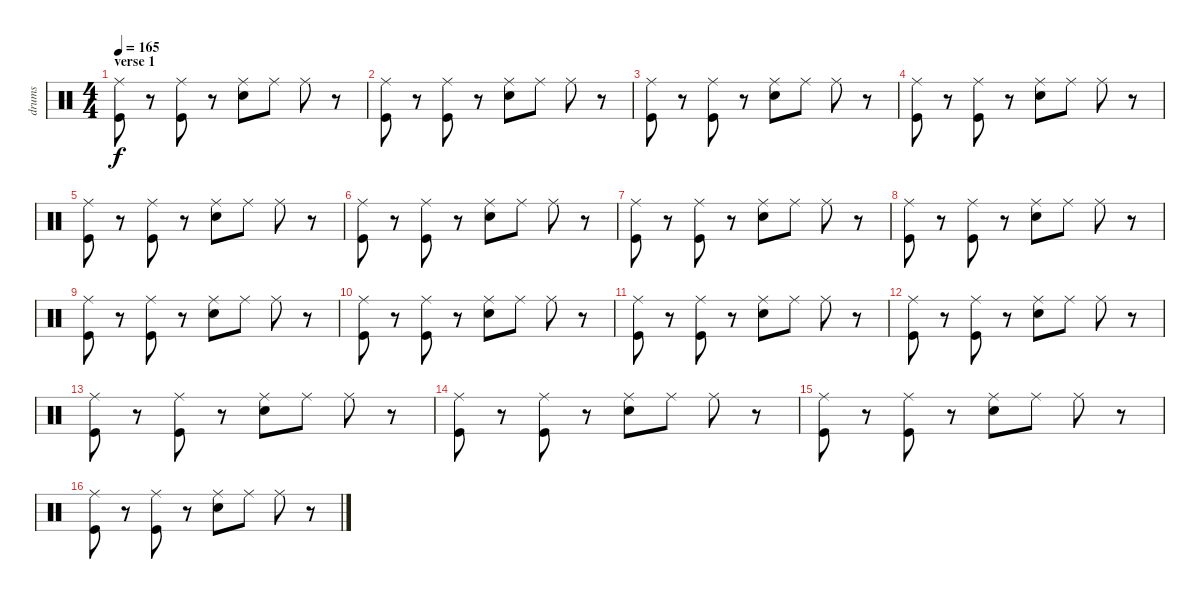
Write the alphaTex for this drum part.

\track ("drums" "drums") {instrument percussion}
\staff {score}
\articulation defaults
\ts (4 4)
\section ("" "verse 1")
\tempo 165
\clef neutral
\ks c
("Kick (hit)" "Ride (middle)").8{dy f} r.8 ("Kick (hit)" "Ride (middle)").8 r.8 ("Snare (hit) 2" "Ride (middle)").8 "Ride (middle)".8 "Ride (middle)".8 r.8 |
("Kick (hit)" "Ride (middle)").8 r.8 ("Kick (hit)" "Ride (middle)").8 r.8 ("Snare (hit) 2" "Ride (middle)").8 "Ride (middle)".8 "Ride (middle)".8 r.8 |
("Kick (hit)" "Ride (middle)").8 r.8 ("Kick (hit)" "Ride (middle)").8 r.8 ("Snare (hit) 2" "Ride (middle)").8 "Ride (middle)".8 "Ride (middle)".8 r.8 |
("Kick (hit)" "Ride (middle)").8 r.8 ("Kick (hit)" "Ride (middle)").8 r.8 ("Snare (hit) 2" "Ride (middle)").8 "Ride (middle)".8 "Ride (middle)".8 r.8 |
("Kick (hit)" "Ride (middle)").8 r.8 ("Kick (hit)" "Ride (middle)").8 r.8 ("Snare (hit) 2" "Ride (middle)").8 "Ride (middle)".8 "Ride (middle)".8 r.8 |
("Kick (hit)" "Ride (middle)").8 r.8 ("Kick (hit)" "Ride (middle)").8 r.8 ("Snare (hit) 2" "Ride (middle)").8 "Ride (middle)".8 "Ride (middle)".8 r.8 |
("Kick (hit)" "Ride (middle)").8 r.8 ("Kick (hit)" "Ride (middle)").8 r.8 ("Snare (hit) 2" "Ride (middle)").8 "Ride (middle)".8 "Ride (middle)".8 r.8 |
("Kick (hit)" "Ride (middle)").8 r.8 ("Kick (hit)" "Ride (middle)").8 r.8 ("Snare (hit) 2" "Ride (middle)").8 "Ride (middle)".8 "Ride (middle)".8 r.8 |
("Kick (hit)" "Ride (middle)").8 r.8 ("Kick (hit)" "Ride (middle)").8 r.8 ("Snare (hit) 2" "Ride (middle)").8 "Ride (middle)".8 "Ride (middle)".8 r.8 |
("Kick (hit)" "Ride (middle)").8 r.8 ("Kick (hit)" "Ride (middle)").8 r.8 ("Snare (hit) 2" "Ride (middle)").8 "Ride (middle)".8 "Ride (middle)".8 r.8 |
("Kick (hit)" "Ride (middle)").8 r.8 ("Kick (hit)" "Ride (middle)").8 r.8 ("Snare (hit) 2" "Ride (middle)").8 "Ride (middle)".8 "Ride (middle)".8 r.8 |
("Kick (hit)" "Ride (middle)").8 r.8 ("Kick (hit)" "Ride (middle)").8 r.8 ("Snare (hit) 2" "Ride (middle)").8 "Ride (middle)".8 "Ride (middle)".8 r.8 |
("Kick (hit)" "Ride (middle)").8 r.8 ("Kick (hit)" "Ride (middle)").8 r.8 ("Snare (hit) 2" "Ride (middle)").8 "Ride (middle)".8 "Ride (middle)".8 r.8 |
("Kick (hit)" "Ride (middle)").8 r.8 ("Kick (hit)" "Ride (middle)").8 r.8 ("Snare (hit) 2" "Ride (middle)").8 "Ride (middle)".8 "Ride (middle)".8 r.8 |
("Kick (hit)" "Ride (middle)").8 r.8 ("Kick (hit)" "Ride (middle)").8 r.8 ("Snare (hit) 2" "Ride (middle)").8 "Ride (middle)".8 "Ride (middle)".8 r.8 |
("Kick (hit)" "Ride (middle)").8 r.8 ("Kick (hit)" "Ride (middle)").8 r.8 ("Snare (hit) 2" "Ride (middle)").8 "Ride (middle)".8 "Ride (middle)".8 r.8
